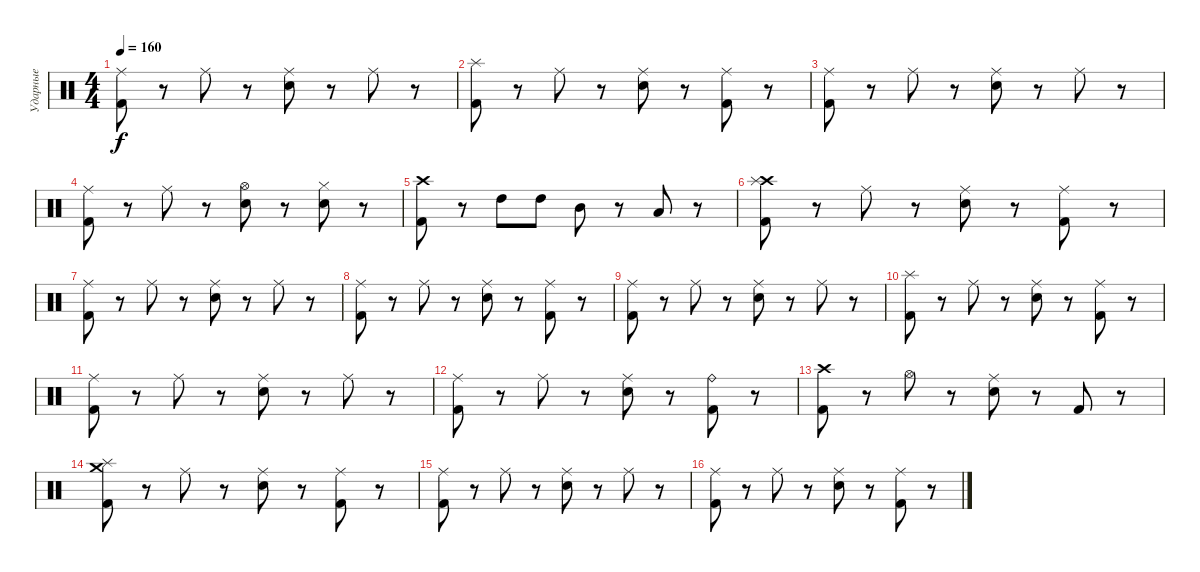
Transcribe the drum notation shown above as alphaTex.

\track ("Ударные" "Ударные") {instrument percussion}
\staff {score}
\articulation defaults
\ts (4 4)
\tempo 160
\clef neutral
\ks c
("Kick (hit) 2" "Ride (middle)").8{dy f} r.8 "Ride (middle)".8 r.8 ("Electric Snare (hit)" "Ride (middle)").8 r.8 "Ride (middle)".8 r.8 |
("Kick (hit) 2" "Splash (hit)").8 r.8 "Ride (middle)".8 r.8 ("Electric Snare (hit)" "Ride (middle)").8 r.8 ("Kick (hit) 2" "Ride (middle)").8 r.8 |
("Kick (hit) 2" "Ride (middle)").8 r.8 "Ride (middle)".8 r.8 ("Electric Snare (hit)" "Ride (middle)").8 r.8 "Ride (middle)".8 r.8 |
("Kick (hit) 2" "Ride (middle)").8 r.8 "Ride (middle)".8 r.8 ("Electric Snare (hit)" "Hi-Hat (open)").8 r.8 ("Electric Snare (hit)" "Hi-Hat (closed)").8 r.8 |
("Kick (hit) 2" "Crash high (hit)").8 r.8 "High Tom (hit)".8 "High Tom (hit)".8 "Mid Tom (hit)".8 r.8 "Low Tom (hit)".8 r.8 |
("Kick (hit) 2" "Crash high (hit)" "Splash (hit)").8 r.8 "Ride (middle)".8 r.8 ("Electric Snare (hit)" "Ride (middle)").8 r.8 ("Kick (hit) 2" "Ride (middle)").8 r.8 |
("Kick (hit) 2" "Ride (middle)").8 r.8 "Ride (middle)".8 r.8 ("Electric Snare (hit)" "Ride (middle)").8 r.8 "Ride (middle)".8 r.8 |
("Kick (hit) 2" "Ride (middle)").8 r.8 "Ride (middle)".8 r.8 ("Electric Snare (hit)" "Ride (middle)").8 r.8 ("Kick (hit) 2" "Ride (middle)").8 r.8 |
("Kick (hit) 2" "Ride (middle)").8 r.8 "Ride (middle)".8 r.8 ("Electric Snare (hit)" "Ride (middle)").8 r.8 "Ride (middle)".8 r.8 |
("Kick (hit) 2" "Splash (hit)").8 r.8 "Ride (middle)".8 r.8 ("Electric Snare (hit)" "Ride (middle)").8 r.8 ("Kick (hit) 2" "Ride (middle)").8 r.8 |
("Kick (hit) 2" "Ride (middle)").8 r.8 "Ride (middle)".8 r.8 ("Electric Snare (hit)" "Ride (middle)").8 r.8 "Ride (middle)".8 r.8 |
("Kick (hit) 2" "Ride (middle)").8 r.8 "Ride (middle)".8 r.8 ("Electric Snare (hit)" "Ride (middle)").8 r.8 ("Kick (hit) 2" "Ride (bell)").8 r.8 |
("Kick (hit) 2" "Crash high (hit)").8 r.8 "Hi-Hat (open)".8 r.8 ("Electric Snare (hit)" "Ride (middle)").8 r.8 "Kick (hit) 2".8 r.8 |
("Kick (hit) 2" "Crash medium (hit)" "Splash (hit)").8 r.8 "Ride (middle)".8 r.8 ("Electric Snare (hit)" "Ride (middle)").8 r.8 ("Kick (hit) 2" "Ride (middle)").8 r.8 |
("Kick (hit) 2" "Ride (middle)").8 r.8 "Ride (middle)".8 r.8 ("Electric Snare (hit)" "Ride (middle)").8 r.8 "Ride (middle)".8 r.8 |
("Kick (hit) 2" "Ride (middle)").8 r.8 "Ride (middle)".8 r.8 ("Electric Snare (hit)" "Ride (middle)").8 r.8 ("Kick (hit) 2" "Ride (middle)").8 r.8
